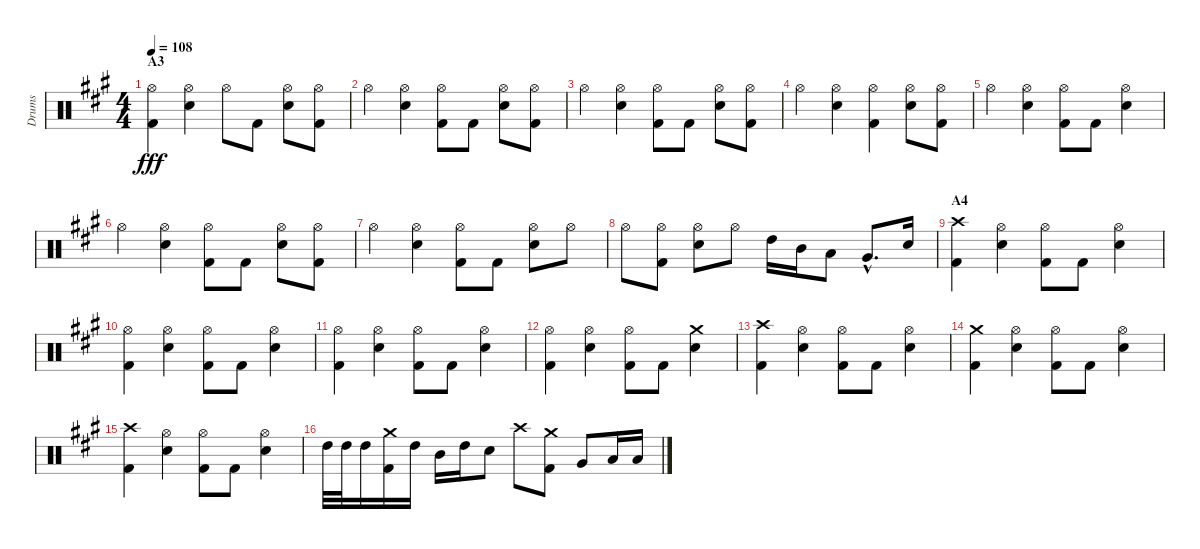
\track ("Drums" "Drums") {instrument percussion}
\staff {score}
\articulation defaults
\ts (4 4)
\section ("" "A3")
\tempo 108
\clef neutral
\ks a
("Hi-Hat (open)" "Kick (hit) 2").4{dy fff} ("Hi-Hat (open)" "Electric Snare (hit)").4 "Hi-Hat (open)".8 "Kick (hit) 2".8 ("Hi-Hat (open)" "Electric Snare (hit)").8 ("Hi-Hat (open)" "Kick (hit) 2").8 |
"Hi-Hat (open)".4 ("Hi-Hat (open)" "Electric Snare (hit)").4 ("Hi-Hat (open)" "Kick (hit) 2").8 "Kick (hit) 2".8 ("Hi-Hat (open)" "Electric Snare (hit)").8 ("Hi-Hat (open)" "Kick (hit) 2").8 |
"Hi-Hat (open)".4 ("Hi-Hat (open)" "Electric Snare (hit)").4 ("Hi-Hat (open)" "Kick (hit) 2").8 "Kick (hit) 2".8 ("Hi-Hat (open)" "Electric Snare (hit)").8 ("Hi-Hat (open)" "Kick (hit) 2").8 |
"Hi-Hat (open)".4 ("Hi-Hat (open)" "Electric Snare (hit)").4 ("Hi-Hat (open)" "Kick (hit) 2").4 ("Hi-Hat (open)" "Electric Snare (hit)").8 ("Hi-Hat (open)" "Kick (hit) 2").8 |
"Hi-Hat (open)".4 ("Hi-Hat (open)" "Electric Snare (hit)").4 ("Hi-Hat (open)" "Kick (hit) 2").8 "Kick (hit) 2".8 ("Hi-Hat (open)" "Electric Snare (hit)").4 |
"Hi-Hat (open)".4 ("Hi-Hat (open)" "Electric Snare (hit)").4 ("Hi-Hat (open)" "Kick (hit) 2").8 "Kick (hit) 2".8 ("Hi-Hat (open)" "Electric Snare (hit)").8 ("Hi-Hat (open)" "Kick (hit) 2").8 |
"Hi-Hat (open)".4 ("Hi-Hat (open)" "Electric Snare (hit)").4 ("Hi-Hat (open)" "Kick (hit) 2").8 "Kick (hit) 2".8 ("Hi-Hat (open)" "Electric Snare (hit)").8 "Hi-Hat (open)".8 |
"Hi-Hat (open)".8 ("Hi-Hat (open)" "Kick (hit) 2").8 ("Hi-Hat (open)" "Electric Snare (hit)").8 "Hi-Hat (open)".8 "High Tom (hit)".16 "Mid Tom (hit)".16 "Low Tom (hit)".8 "Very Low Tom (hit)"{hac}.8{d} "Electric Snare (hit)".16 |
\section ("" "A4")
("Crash high (hit)" "Kick (hit) 2").4 ("Hi-Hat (open)" "Electric Snare (hit)").4 ("Hi-Hat (open)" "Kick (hit) 2").8 "Kick (hit) 2".8 ("Hi-Hat (open)" "Electric Snare (hit)").4 |
("Hi-Hat (open)" "Kick (hit) 2").4 ("Hi-Hat (open)" "Electric Snare (hit)").4 ("Hi-Hat (open)" "Kick (hit) 2").8 "Kick (hit) 2".8 ("Hi-Hat (open)" "Electric Snare (hit)").4 |
("Hi-Hat (open)" "Kick (hit) 2").4 ("Hi-Hat (open)" "Electric Snare (hit)").4 ("Hi-Hat (open)" "Kick (hit) 2").8 "Kick (hit) 2".8 ("Hi-Hat (open)" "Electric Snare (hit)").4 |
("Hi-Hat (open)" "Kick (hit) 2").4 ("Hi-Hat (open)" "Electric Snare (hit)").4 ("Hi-Hat (open)" "Kick (hit) 2").8 "Kick (hit) 2".8 ("Crash medium (hit)" "Electric Snare (hit)").4 |
("Crash high (hit)" "Kick (hit) 2").4 ("Hi-Hat (open)" "Electric Snare (hit)").4 ("Hi-Hat (open)" "Kick (hit) 2").8 "Kick (hit) 2".8 ("Hi-Hat (open)" "Electric Snare (hit)").4 |
("Crash medium (hit)" "Kick (hit) 2").4 ("Hi-Hat (open)" "Electric Snare (hit)").4 ("Hi-Hat (open)" "Kick (hit) 2").8 "Kick (hit) 2".8 ("Hi-Hat (open)" "Electric Snare (hit)").4 |
("Crash high (hit)" "Kick (hit) 2").4 ("Hi-Hat (open)" "Electric Snare (hit)").4 ("Hi-Hat (open)" "Kick (hit) 2").8 "Kick (hit) 2".8 ("Hi-Hat (open)" "Electric Snare (hit)").4 |
"High Tom (hit)".32 "High Tom (hit)".32 "High Tom (hit)".16 ("Crash medium (hit)" "Kick (hit) 2").16 "High Tom (hit)".16 "Mid Tom (hit)".16 "High Tom (hit)".16 "Electric Snare (hit)".8 "Crash high (hit)".8 ("Crash medium (hit)" "Kick (hit) 2").8 "Very Low Tom (hit)".8 "Low Tom (hit)".16 "Low Tom (hit)".16
